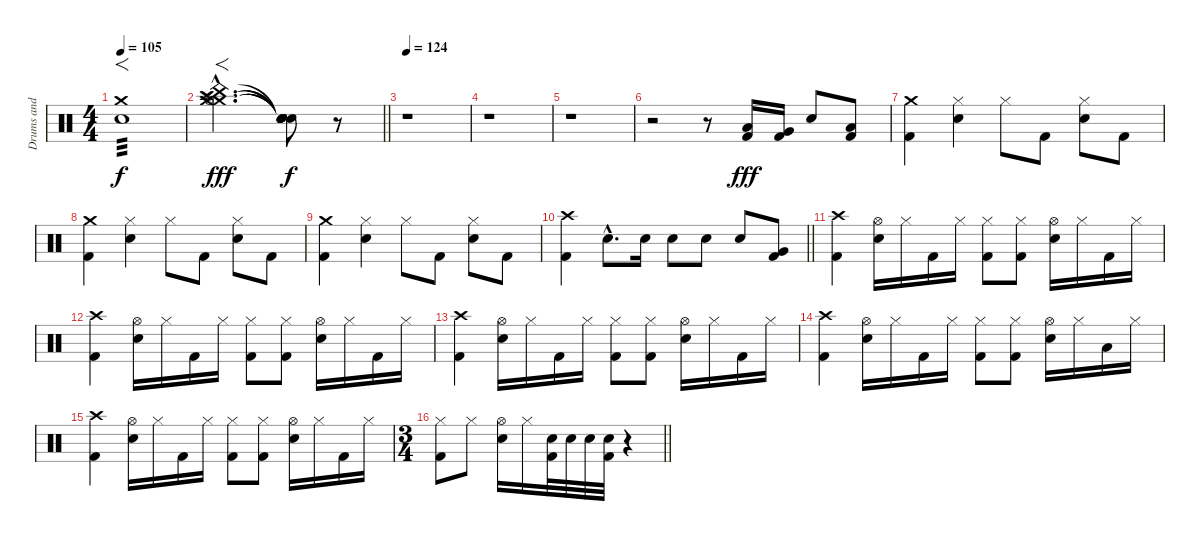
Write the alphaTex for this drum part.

\track ("Drums and percussion" "Drums and ") {instrument percussion}
\staff {score}
\articulation defaults
\ts (4 4)
\tempo 105
\clef neutral
\ks c
("Crash medium (hit)" "Snare (hit)").1{f tp 3 dy f} |
\barLineRight lightlight
("Crash medium (hit)"{tr (57 64) hac} "Crash high (hit)"{tr (49 64) hac} "Crash medium (hit)"{tr (57 64) hac} "Splash (hit)"{tr (55 64) hac} "China (hit)"{tr (52 64) hac} "Hi-Hat (open)"{tr (46 64) hac}).2{f d dy fff} ("Snare (hit)"{t} "Snare (hit)"{t} "Snare (hit)"{t} "Snare (hit)"{t} "Snare (hit)"{t} "Snare (hit)"{t}).8{dy f} r.8{volume 0} |
\tempo 124
r.1 |
r.1{volume 8} |
r.1 |
r.2 r.8 ("Low Tom (hit)" "Kick (hit) 2").16{dy fff} ("Very Low Tom (hit)" "Kick (hit) 2").16 "Electric Snare (hit)".8 ("Low Tom (hit)" "Kick (hit) 2").8 |
("Crash medium (hit)" "Kick (hit) 2").4 ("Hi-Hat (closed)" "Electric Snare (hit)").4 "Hi-Hat (closed)".8 "Kick (hit) 2".8 ("Hi-Hat (closed)" "Electric Snare (hit)").8 "Kick (hit) 2".8 |
("Crash medium (hit)" "Kick (hit) 2").4 ("Hi-Hat (closed)" "Electric Snare (hit)").4 "Hi-Hat (closed)".8 "Kick (hit) 2".8 ("Hi-Hat (closed)" "Electric Snare (hit)").8 "Kick (hit) 2".8 |
("Crash medium (hit)" "Kick (hit) 2").4 ("Hi-Hat (closed)" "Electric Snare (hit)").4 "Hi-Hat (closed)".8 "Kick (hit) 2".8 ("Hi-Hat (closed)" "Electric Snare (hit)").8 "Kick (hit) 2".8 |
\barLineRight lightlight
("Crash high (hit)" "Kick (hit) 2").4 "Electric Snare (hit)"{hac}.8{d} "Electric Snare (hit)".16 "Electric Snare (hit)".8 "Electric Snare (hit)".8 "Electric Snare (hit)".8 ("Very Low Tom (hit)" "Kick (hit) 2").8 |
("Crash high (hit)" "Kick (hit) 2").4 ("Hi-Hat (open)" "Electric Snare (hit)").16 "Hi-Hat (closed)".16 "Kick (hit) 2".16 "Hi-Hat (closed)".16 ("Hi-Hat (closed)" "Kick (hit) 2").8 ("Hi-Hat (closed)" "Kick (hit) 2").8 ("Hi-Hat (open)" "Electric Snare (hit)").16 "Hi-Hat (closed)".16 "Kick (hit) 2".16 "Hi-Hat (closed)".16 |
("Crash high (hit)" "Kick (hit) 2").4 ("Hi-Hat (open)" "Electric Snare (hit)").16 "Hi-Hat (closed)".16 "Kick (hit) 2".16 "Hi-Hat (closed)".16 ("Hi-Hat (closed)" "Kick (hit) 2").8 ("Hi-Hat (closed)" "Kick (hit) 2").8 ("Hi-Hat (open)" "Electric Snare (hit)").16 "Hi-Hat (closed)".16 "Kick (hit) 2".16 "Hi-Hat (closed)".16 |
("Crash high (hit)" "Kick (hit) 2").4 ("Hi-Hat (open)" "Electric Snare (hit)").16 "Hi-Hat (closed)".16 "Kick (hit) 2".16 "Hi-Hat (closed)".16 ("Hi-Hat (closed)" "Kick (hit) 2").8 ("Hi-Hat (closed)" "Kick (hit) 2").8 ("Hi-Hat (open)" "Electric Snare (hit)").16 "Hi-Hat (closed)".16 "Kick (hit) 2".16 "Hi-Hat (closed)".16 |
("Crash high (hit)" "Kick (hit) 2").4 ("Hi-Hat (open)" "Electric Snare (hit)").16 "Hi-Hat (closed)".16 "Kick (hit) 2".16 "Hi-Hat (closed)".16 ("Hi-Hat (closed)" "Kick (hit) 2").8 ("Hi-Hat (closed)" "Kick (hit) 2").8 ("Hi-Hat (open)" "Electric Snare (hit)").16 "Hi-Hat (closed)".16 "Low Tom (hit)".16 "Hi-Hat (closed)".16 |
("Crash high (hit)" "Kick (hit) 2").4 ("Hi-Hat (open)" "Electric Snare (hit)").16 "Hi-Hat (closed)".16 "Kick (hit) 2".16 "Hi-Hat (closed)".16 ("Hi-Hat (closed)" "Kick (hit) 2").8 ("Hi-Hat (closed)" "Kick (hit) 2").8 ("Hi-Hat (open)" "Electric Snare (hit)").16 "Hi-Hat (closed)".16 "Kick (hit) 2".16 "Hi-Hat (closed)".16 |
\ts (3 4)
\barLineRight lightlight
("Hi-Hat (closed)" "Kick (hit) 2").8 "Hi-Hat (closed)".8 ("Hi-Hat (open)" "Electric Snare (hit)").16 "Hi-Hat (closed)".16 ("Electric Snare (hit)" "Kick (hit) 2").32 "Electric Snare (hit)".32 "Electric Snare (hit)".32 ("Electric Snare (hit)" "Kick (hit) 2").32 r.4
